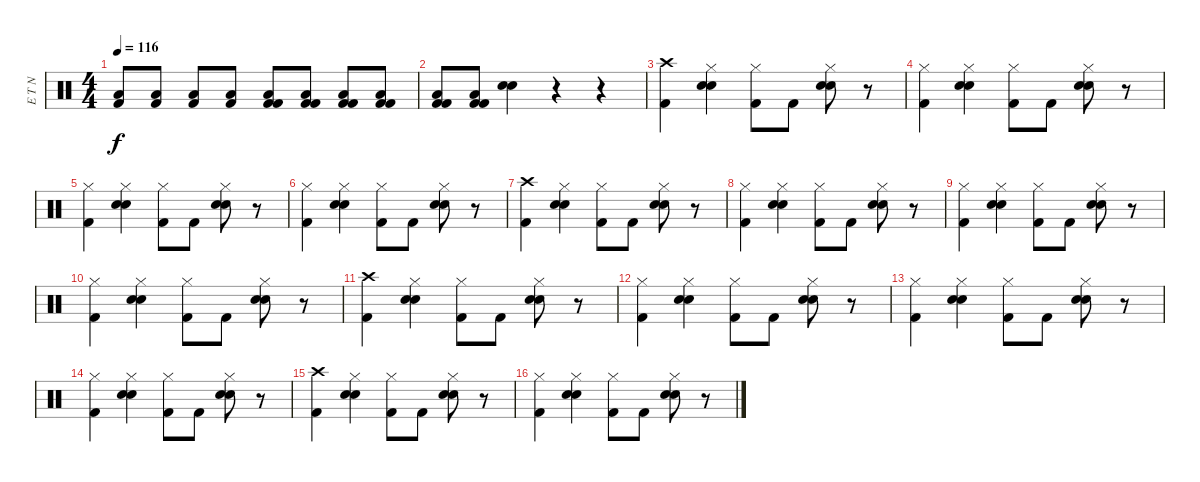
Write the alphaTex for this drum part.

\track ("E T N" "E T N") {instrument percussion}
\staff {score}
\articulation defaults
\ts (4 4)
\tempo 116
\clef neutral
\ks c
("Low Tom (hit)" "Kick (hit) 2").8{dy f volume 12} ("Low Tom (hit)" "Kick (hit) 2").8 ("Low Tom (hit)" "Kick (hit) 2").8 ("Low Tom (hit)" "Kick (hit) 2").8{volume 14} ("Low Tom (hit)" "Kick (hit) 2" "Kick (hit) 2").8 ("Low Tom (hit)" "Kick (hit) 2" "Kick (hit) 2").8 ("Low Tom (hit)" "Kick (hit) 2" "Kick (hit) 2").8 ("Low Tom (hit)" "Kick (hit) 2" "Kick (hit) 2").8 |
("Low Tom (hit)" "Kick (hit) 2" "Kick (hit) 2").8{volume 14} ("Low Tom (hit)" "Kick (hit) 2" "Kick (hit) 2").8 ("Electric Snare (hit)" "Electric Snare (hit)").4 r.4 r.4 |
("Crash high (hit)" "Kick (hit) 2").4 ("Hi-Hat (closed)" "Electric Snare (hit)" "Electric Snare (hit)").4 ("Hi-Hat (closed)" "Kick (hit) 2").8 "Kick (hit) 2".8 ("Hi-Hat (closed)" "Electric Snare (hit)" "Electric Snare (hit)").8 r.8 |
("Hi-Hat (closed)" "Kick (hit) 2").4 ("Hi-Hat (closed)" "Electric Snare (hit)" "Electric Snare (hit)").4 ("Hi-Hat (closed)" "Kick (hit) 2").8 "Kick (hit) 2".8 ("Hi-Hat (closed)" "Electric Snare (hit)" "Electric Snare (hit)").8 r.8 |
("Hi-Hat (closed)" "Kick (hit) 2").4 ("Hi-Hat (closed)" "Electric Snare (hit)" "Electric Snare (hit)").4 ("Hi-Hat (closed)" "Kick (hit) 2").8 "Kick (hit) 2".8 ("Hi-Hat (closed)" "Electric Snare (hit)" "Electric Snare (hit)").8 r.8 |
("Hi-Hat (closed)" "Kick (hit) 2").4 ("Hi-Hat (closed)" "Electric Snare (hit)" "Electric Snare (hit)").4 ("Hi-Hat (closed)" "Kick (hit) 2").8 "Kick (hit) 2".8 ("Hi-Hat (closed)" "Electric Snare (hit)" "Electric Snare (hit)").8 r.8 |
("Crash high (hit)" "Kick (hit) 2").4 ("Hi-Hat (closed)" "Electric Snare (hit)" "Electric Snare (hit)").4 ("Hi-Hat (closed)" "Kick (hit) 2").8 "Kick (hit) 2".8 ("Hi-Hat (closed)" "Electric Snare (hit)" "Electric Snare (hit)").8 r.8 |
("Hi-Hat (closed)" "Kick (hit) 2").4 ("Hi-Hat (closed)" "Electric Snare (hit)" "Electric Snare (hit)").4 ("Hi-Hat (closed)" "Kick (hit) 2").8 "Kick (hit) 2".8 ("Hi-Hat (closed)" "Electric Snare (hit)" "Electric Snare (hit)").8 r.8 |
("Hi-Hat (closed)" "Kick (hit) 2").4 ("Hi-Hat (closed)" "Electric Snare (hit)" "Electric Snare (hit)").4 ("Hi-Hat (closed)" "Kick (hit) 2").8 "Kick (hit) 2".8 ("Hi-Hat (closed)" "Electric Snare (hit)" "Electric Snare (hit)").8 r.8 |
("Hi-Hat (closed)" "Kick (hit) 2").4 ("Hi-Hat (closed)" "Electric Snare (hit)" "Electric Snare (hit)").4 ("Hi-Hat (closed)" "Kick (hit) 2").8 "Kick (hit) 2".8 ("Hi-Hat (closed)" "Electric Snare (hit)" "Electric Snare (hit)").8 r.8 |
("Crash high (hit)" "Kick (hit) 2").4 ("Hi-Hat (closed)" "Electric Snare (hit)" "Electric Snare (hit)").4 ("Hi-Hat (closed)" "Kick (hit) 2").8 "Kick (hit) 2".8 ("Hi-Hat (closed)" "Electric Snare (hit)" "Electric Snare (hit)").8 r.8 |
("Hi-Hat (closed)" "Kick (hit) 2").4 ("Hi-Hat (closed)" "Electric Snare (hit)" "Electric Snare (hit)").4 ("Hi-Hat (closed)" "Kick (hit) 2").8 "Kick (hit) 2".8 ("Hi-Hat (closed)" "Electric Snare (hit)" "Electric Snare (hit)").8 r.8 |
("Hi-Hat (closed)" "Kick (hit) 2").4 ("Hi-Hat (closed)" "Electric Snare (hit)" "Electric Snare (hit)").4 ("Hi-Hat (closed)" "Kick (hit) 2").8 "Kick (hit) 2".8 ("Hi-Hat (closed)" "Electric Snare (hit)" "Electric Snare (hit)").8 r.8 |
("Hi-Hat (closed)" "Kick (hit) 2").4 ("Hi-Hat (closed)" "Electric Snare (hit)" "Electric Snare (hit)").4 ("Hi-Hat (closed)" "Kick (hit) 2").8 "Kick (hit) 2".8 ("Hi-Hat (closed)" "Electric Snare (hit)" "Electric Snare (hit)").8 r.8 |
("Crash high (hit)" "Kick (hit) 2").4 ("Hi-Hat (closed)" "Electric Snare (hit)" "Electric Snare (hit)").4 ("Hi-Hat (closed)" "Kick (hit) 2").8 "Kick (hit) 2".8 ("Hi-Hat (closed)" "Electric Snare (hit)" "Electric Snare (hit)").8 r.8 |
("Hi-Hat (closed)" "Kick (hit) 2").4 ("Hi-Hat (closed)" "Electric Snare (hit)" "Electric Snare (hit)").4 ("Hi-Hat (closed)" "Kick (hit) 2").8 "Kick (hit) 2".8 ("Hi-Hat (closed)" "Electric Snare (hit)" "Electric Snare (hit)").8 r.8
